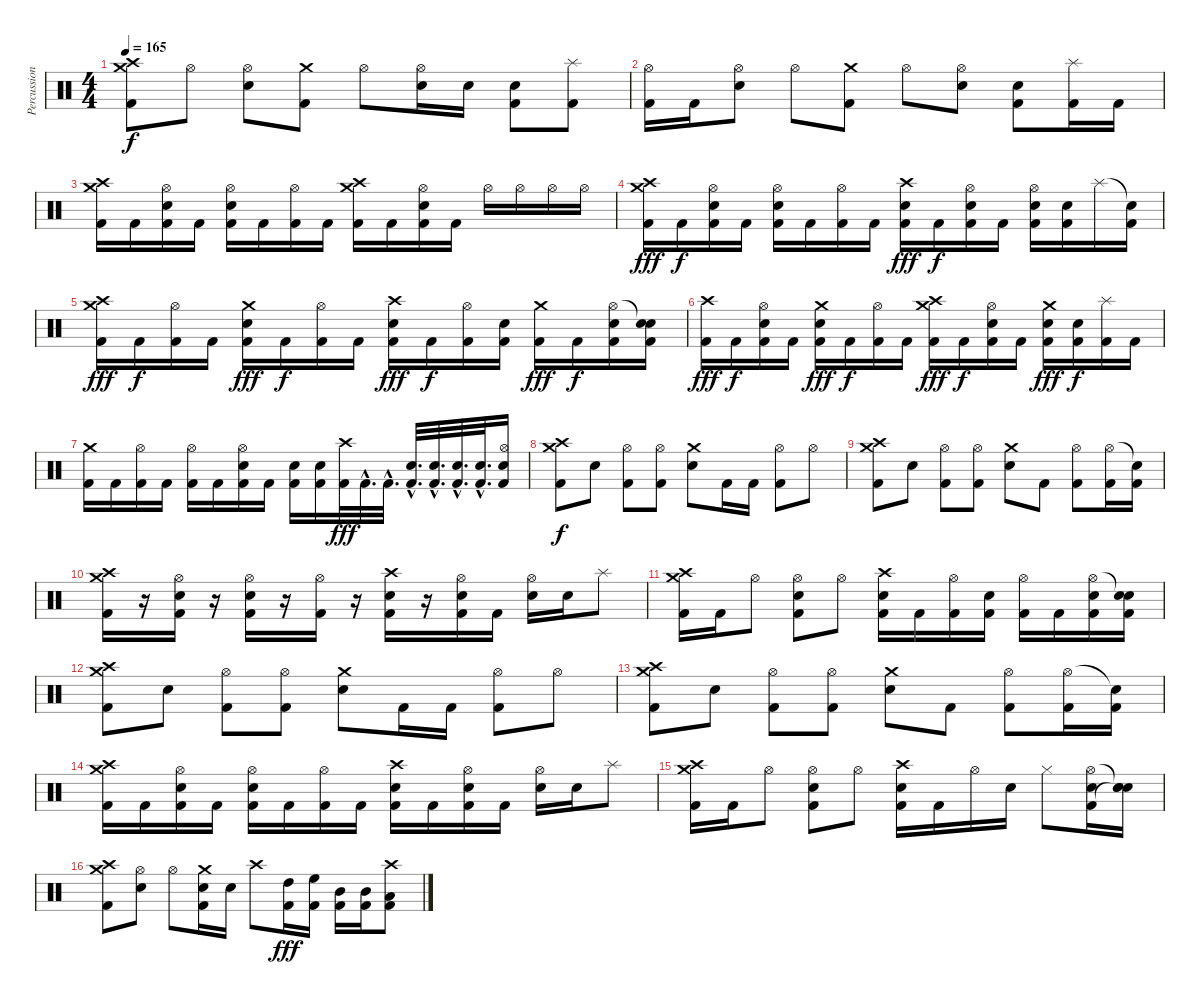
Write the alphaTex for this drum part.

\track ("Percussion" "Percussion") {instrument percussion}
\staff {score}
\articulation defaults
\ts (4 4)
\tempo 165
\clef neutral
\ks c
("Crash medium (hit)" "Crash high (hit)" "Kick (hit) 2").8{dy f} "Hi-Hat (open)".8 ("Hi-Hat (open)" "Electric Snare (hit)").8 ("Crash medium (hit)" "Kick (hit) 2").8 "Hi-Hat (open)".8 ("Hi-Hat (open)" "Electric Snare (hit)").16 "Electric Snare (hit)".16 ("Electric Snare (hit)" "Kick (hit) 2").8 ("Splash (hit)" "Kick (hit) 2").8 |
("Hi-Hat (open)" "Kick (hit) 2").16 "Kick (hit) 2".16 ("Hi-Hat (open)" "Electric Snare (hit)").8 "Hi-Hat (open)".8 ("Crash medium (hit)" "Kick (hit) 2").8 "Hi-Hat (open)".8 ("Hi-Hat (open)" "Electric Snare (hit)").8 ("Electric Snare (hit)" "Kick (hit) 2").8 ("Splash (hit)" "Kick (hit) 2").16 "Kick (hit) 2".16 |
("Crash medium (hit)" "Crash high (hit)" "Kick (hit) 2").16 "Kick (hit) 2".16 ("Hi-Hat (open)" "Electric Snare (hit)" "Kick (hit) 2").16 "Kick (hit) 2".16 ("Hi-Hat (open)" "Electric Snare (hit)" "Kick (hit) 2").16 "Kick (hit) 2".16 ("Hi-Hat (open)" "Kick (hit) 2").16 "Kick (hit) 2".16 ("Crash medium (hit)" "Crash high (hit)" "Kick (hit) 2").16 "Kick (hit) 2".16 ("Hi-Hat (open)" "Electric Snare (hit)" "Kick (hit) 2").16 "Kick (hit) 2".16 "Hi-Hat (open)".16 "Hi-Hat (open)".16 "Hi-Hat (open)".16 "Hi-Hat (open)".16 |
("Crash medium (hit)" "Crash high (hit)" "Kick (hit) 2").16{dy fff} "Kick (hit) 2".16{dy f} ("Hi-Hat (open)" "Electric Snare (hit)" "Kick (hit) 2").16 "Kick (hit) 2".16 ("Hi-Hat (open)" "Electric Snare (hit)" "Kick (hit) 2").16 "Kick (hit) 2".16 ("Hi-Hat (open)" "Kick (hit) 2").16 "Kick (hit) 2".16 ("Crash high (hit)" "Electric Snare (hit)" "Kick (hit) 2").16{dy fff} "Kick (hit) 2".16{dy f} ("Hi-Hat (open)" "Electric Snare (hit)" "Kick (hit) 2").16 "Kick (hit) 2".16 ("Hi-Hat (open)" "Electric Snare (hit)" "Kick (hit) 2").16 ("Electric Snare (hit)" "Kick (hit) 2").16 "Splash (hit)".16 ("Snare (hit)"{t} "Kick (hit) 2").16 |
("Crash medium (hit)" "Crash high (hit)" "Kick (hit) 2").16{dy fff} "Kick (hit) 2".16{dy f} ("Hi-Hat (open)" "Kick (hit) 2").16 "Kick (hit) 2".16 ("Crash medium (hit)" "Electric Snare (hit)" "Kick (hit) 2").16{dy fff} "Kick (hit) 2".16{dy f} ("Hi-Hat (open)" "Kick (hit) 2").16 "Kick (hit) 2".16 ("Crash high (hit)" "Electric Snare (hit)" "Kick (hit) 2").16{dy fff} "Kick (hit) 2".16{dy f} ("Hi-Hat (open)" "Kick (hit) 2").16 ("Electric Snare (hit)" "Kick (hit) 2").16 ("Crash medium (hit)" "Kick (hit) 2").16{dy fff} "Kick (hit) 2".16{dy f} ("Hi-Hat (open)" "Electric Snare (hit)" "Kick (hit) 2").16 ("Snare (hit)"{t} "Electric Snare (hit)" "Kick (hit) 2").16 |
("Crash high (hit)" "Kick (hit) 2").16{dy fff} "Kick (hit) 2".16{dy f} ("Hi-Hat (open)" "Electric Snare (hit)" "Kick (hit) 2").16 "Kick (hit) 2".16 ("Crash medium (hit)" "Electric Snare (hit)" "Kick (hit) 2").16{dy fff} "Kick (hit) 2".16{dy f} ("Hi-Hat (open)" "Kick (hit) 2").16 "Kick (hit) 2".16 ("Crash medium (hit)" "Crash high (hit)" "Kick (hit) 2").16{dy fff} "Kick (hit) 2".16{dy f} ("Hi-Hat (open)" "Electric Snare (hit)" "Kick (hit) 2").16 "Kick (hit) 2".16 ("Crash medium (hit)" "Electric Snare (hit)" "Kick (hit) 2").16{dy fff} ("Electric Snare (hit)" "Kick (hit) 2").16{dy f} ("Splash (hit)" "Kick (hit) 2").16 "Kick (hit) 2".16 |
("Crash medium (hit)" "Kick (hit) 2").16 "Kick (hit) 2".16 ("Hi-Hat (open)" "Kick (hit) 2").16 "Kick (hit) 2".16 ("Hi-Hat (open)" "Kick (hit) 2").16 "Kick (hit) 2".16 ("Hi-Hat (open)" "Electric Snare (hit)" "Kick (hit) 2").16 "Kick (hit) 2".16 ("Electric Snare (hit)" "Kick (hit) 2").16 ("Electric Snare (hit)" "Kick (hit) 2").16 ("Crash high (hit)" "Kick (hit) 2").32{dy fff} "Kick (hit) 2"{hac}.32{d} "Kick (hit) 2"{hac}.32{d} ("Electric Snare (hit)"{hac} "Kick (hit) 2"{hac}).32{d} ("Electric Snare (hit)"{hac} "Kick (hit) 2"{hac}).32{d} ("Electric Snare (hit)"{hac} "Kick (hit) 2"{hac}).32{d} ("Electric Snare (hit)"{hac} "Kick (hit) 2"{hac}).32{d} ("Hi-Hat (open)" "Electric Snare (hit)" "Kick (hit) 2").16 |
("Crash medium (hit)" "Crash high (hit)" "Kick (hit) 2").8{dy f} "Electric Snare (hit)".8 ("Hi-Hat (open)" "Kick (hit) 2").8 ("Hi-Hat (open)" "Kick (hit) 2").8 ("Crash medium (hit)" "Electric Snare (hit)").8 "Kick (hit) 2".16 "Kick (hit) 2".16 ("Hi-Hat (open)" "Kick (hit) 2").8 "Hi-Hat (open)".8 |
("Crash medium (hit)" "Crash high (hit)" "Kick (hit) 2").8 "Electric Snare (hit)".8 ("Hi-Hat (open)" "Kick (hit) 2").8 ("Hi-Hat (open)" "Kick (hit) 2").8 ("Crash medium (hit)" "Electric Snare (hit)").8 "Kick (hit) 2".8 ("Hi-Hat (open)" "Kick (hit) 2").8 ("Hi-Hat (open)" "Kick (hit) 2").16 ("Snare (hit)"{t} "Kick (hit) 2").16 |
("Crash medium (hit)" "Crash high (hit)" "Kick (hit) 2").16 r.16 ("Hi-Hat (open)" "Electric Snare (hit)" "Kick (hit) 2").16 r.16 ("Hi-Hat (open)" "Electric Snare (hit)" "Kick (hit) 2").16 r.16 ("Hi-Hat (open)" "Kick (hit) 2").16 r.16 ("Crash high (hit)" "Electric Snare (hit)" "Kick (hit) 2").16 r.16 ("Hi-Hat (open)" "Electric Snare (hit)" "Kick (hit) 2").16 "Kick (hit) 2".16 ("Hi-Hat (open)" "Electric Snare (hit)").16 "Electric Snare (hit)".16 "Splash (hit)".8 |
("Crash medium (hit)" "Crash high (hit)" "Kick (hit) 2").16 "Kick (hit) 2".16 "Hi-Hat (open)".8 ("Hi-Hat (open)" "Electric Snare (hit)" "Kick (hit) 2").8 "Hi-Hat (open)".8 ("Crash high (hit)" "Electric Snare (hit)" "Kick (hit) 2").16 "Kick (hit) 2".16 ("Hi-Hat (open)" "Kick (hit) 2").16 ("Electric Snare (hit)" "Kick (hit) 2").16 ("Hi-Hat (open)" "Kick (hit) 2").16 "Kick (hit) 2".16 ("Hi-Hat (open)" "Electric Snare (hit)" "Kick (hit) 2").16 ("Snare (hit)"{t} "Electric Snare (hit)" "Kick (hit) 2").16 |
("Crash medium (hit)" "Crash high (hit)" "Kick (hit) 2").8 "Electric Snare (hit)".8 ("Hi-Hat (open)" "Kick (hit) 2").8 ("Hi-Hat (open)" "Kick (hit) 2").8 ("Crash medium (hit)" "Electric Snare (hit)").8 "Kick (hit) 2".16 "Kick (hit) 2".16 ("Hi-Hat (open)" "Kick (hit) 2").8 "Hi-Hat (open)".8 |
("Crash medium (hit)" "Crash high (hit)" "Kick (hit) 2").8 "Electric Snare (hit)".8 ("Hi-Hat (open)" "Kick (hit) 2").8 ("Hi-Hat (open)" "Kick (hit) 2").8 ("Crash medium (hit)" "Electric Snare (hit)").8 "Kick (hit) 2".8 ("Hi-Hat (open)" "Kick (hit) 2").8 ("Hi-Hat (open)" "Kick (hit) 2").16 ("Snare (hit)"{t} "Kick (hit) 2").16 |
("Crash medium (hit)" "Crash high (hit)" "Kick (hit) 2").16 "Kick (hit) 2".16 ("Hi-Hat (open)" "Electric Snare (hit)" "Kick (hit) 2").16 "Kick (hit) 2".16 ("Hi-Hat (open)" "Electric Snare (hit)" "Kick (hit) 2").16 "Kick (hit) 2".16 ("Hi-Hat (open)" "Kick (hit) 2").16 "Kick (hit) 2".16 ("Crash high (hit)" "Electric Snare (hit)" "Kick (hit) 2").16 "Kick (hit) 2".16 ("Hi-Hat (open)" "Electric Snare (hit)" "Kick (hit) 2").16 "Kick (hit) 2".16 ("Hi-Hat (open)" "Electric Snare (hit)").16 "Electric Snare (hit)".16 "Splash (hit)".8 |
("Crash medium (hit)" "Crash high (hit)" "Kick (hit) 2").16 "Kick (hit) 2".16 "Hi-Hat (open)".8 ("Hi-Hat (open)" "Electric Snare (hit)" "Kick (hit) 2").8 "Hi-Hat (open)".8 ("Crash high (hit)" "Electric Snare (hit)" "Kick (hit) 2").16 "Kick (hit) 2".16 "Hi-Hat (open)".16 "Electric Snare (hit)".16 "Hi-Hat (closed)".8 ("Hi-Hat (open)" "Electric Snare (hit)" "Kick (hit) 2").16 ("Snare (hit)"{t} "Electric Snare (hit)" "Snare (hit)"{t}).16 |
("Crash medium (hit)" "Crash high (hit)" "Kick (hit) 2").8 ("Hi-Hat (open)" "Electric Snare (hit)").8 "Hi-Hat (open)".8 ("Crash medium (hit)" "Electric Snare (hit)" "Kick (hit) 2").16 "Electric Snare (hit)".16 "Crash high (hit)".8 ("High Tom (hit)" "Kick (hit) 2").16{dy fff} ("High Floor Tom (hit)" "Kick (hit) 2").16 ("Mid Tom (hit)" "Kick (hit) 2").16 ("Mid Tom (hit)" "Kick (hit) 2").16 ("Crash high (hit)" "Low Tom (hit)" "Kick (hit) 2").8
